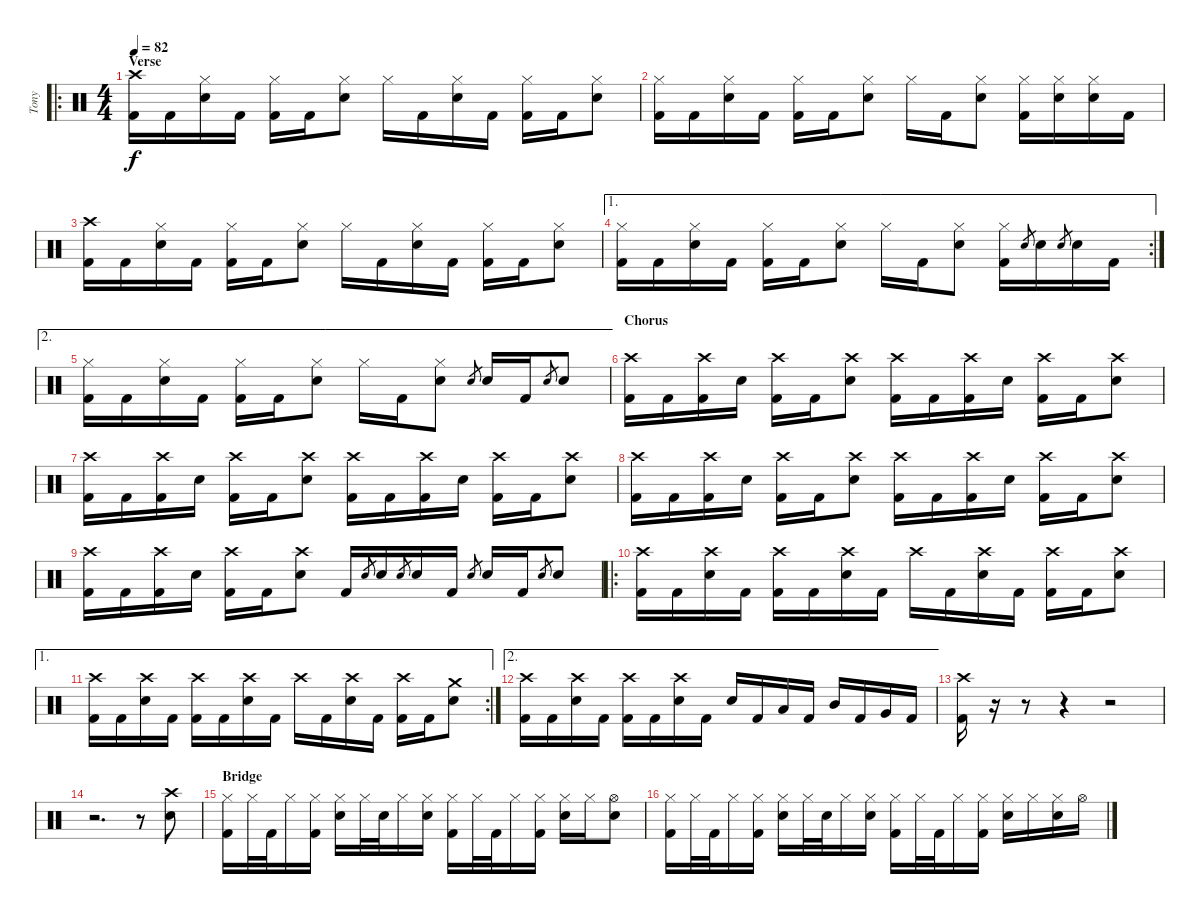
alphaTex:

\track ("Tony" "Tony") {instrument percussion}
\staff {score}
\articulation defaults
\ro
\ts (4 4)
\section ("" "Verse")
\tempo 82
\clef neutral
\ks c
("Kick (hit) 2" "Crash high (hit)").16{dy f} "Kick (hit) 2".16 ("Snare (hit) 2" "Hi-Hat (closed)").16 "Kick (hit) 2".16 ("Kick (hit) 2" "Hi-Hat (closed)").16 "Kick (hit) 2".16 ("Snare (hit) 2" "Hi-Hat (closed)").8 "Hi-Hat (closed)".16 "Kick (hit) 2".16 ("Snare (hit) 2" "Hi-Hat (closed)").16 "Kick (hit) 2".16 ("Kick (hit) 2" "Hi-Hat (closed)").16 "Kick (hit) 2".16 ("Snare (hit) 2" "Hi-Hat (closed)").8 |
("Kick (hit) 2" "Hi-Hat (closed)").16 "Kick (hit) 2".16 ("Snare (hit) 2" "Hi-Hat (closed)").16 "Kick (hit) 2".16 ("Kick (hit) 2" "Hi-Hat (closed)").16 "Kick (hit) 2".16 ("Snare (hit) 2" "Hi-Hat (closed)").8 "Hi-Hat (closed)".16 "Kick (hit) 2".16 ("Snare (hit) 2" "Hi-Hat (closed)").8 ("Kick (hit) 2" "Hi-Hat (closed)").16 ("Snare (hit) 2" "Hi-Hat (closed)").16 ("Snare (hit) 2" "Hi-Hat (closed)").16 "Kick (hit) 2".16 |
("Kick (hit) 2" "Crash high (hit)").16 "Kick (hit) 2".16 ("Snare (hit) 2" "Hi-Hat (closed)").16 "Kick (hit) 2".16 ("Kick (hit) 2" "Hi-Hat (closed)").16 "Kick (hit) 2".16 ("Snare (hit) 2" "Hi-Hat (closed)").8 "Hi-Hat (closed)".16 "Kick (hit) 2".16 ("Snare (hit) 2" "Hi-Hat (closed)").16 "Kick (hit) 2".16 ("Kick (hit) 2" "Hi-Hat (closed)").16 "Kick (hit) 2".16 ("Snare (hit) 2" "Hi-Hat (closed)").8 |
\ae 1
\rc 2
("Kick (hit) 2" "Hi-Hat (closed)").16 "Kick (hit) 2".16 ("Snare (hit) 2" "Hi-Hat (closed)").16 "Kick (hit) 2".16 ("Kick (hit) 2" "Hi-Hat (closed)").16 "Kick (hit) 2".16 ("Snare (hit) 2" "Hi-Hat (closed)").8 "Hi-Hat (closed)".16 "Kick (hit) 2".16 ("Snare (hit) 2" "Hi-Hat (closed)").8 ("Kick (hit) 2" "Hi-Hat (closed)").16 "Snare (hit) 2".8{gr} "Snare (hit) 2".16 "Snare (hit) 2".8{gr} "Snare (hit) 2".16 "Kick (hit) 2".16 |
\ae 2
("Kick (hit) 2" "Hi-Hat (closed)").16 "Kick (hit) 2".16 ("Snare (hit) 2" "Hi-Hat (closed)").16 "Kick (hit) 2".16 ("Kick (hit) 2" "Hi-Hat (closed)").16 "Kick (hit) 2".16 ("Snare (hit) 2" "Hi-Hat (closed)").8 "Hi-Hat (closed)".16 "Kick (hit) 2".16 ("Snare (hit) 2" "Hi-Hat (closed)").8 "Snare (hit) 2".8{gr} "Snare (hit) 2".16 "Kick (hit) 2".16 "Snare (hit) 2".8{gr} "Snare (hit) 2".8 |
\section ("" "Chorus")
("Kick (hit) 2" "Crash high (hit)").16 "Kick (hit) 2".16 ("Kick (hit) 2" "Crash high (hit)").16 "Snare (hit) 2".16 ("Kick (hit) 2" "Crash high (hit)").16 "Kick (hit) 2".16 ("Crash high (hit)" "Snare (hit) 2").8 ("Kick (hit) 2" "Crash high (hit)").16 "Kick (hit) 2".16 ("Kick (hit) 2" "Crash high (hit)").16 "Snare (hit) 2".16 ("Kick (hit) 2" "Crash high (hit)").16 "Kick (hit) 2".16 ("Crash high (hit)" "Snare (hit) 2").8 |
("Kick (hit) 2" "Crash high (hit)").16 "Kick (hit) 2".16 ("Kick (hit) 2" "Crash high (hit)").16 "Snare (hit) 2".16 ("Kick (hit) 2" "Crash high (hit)").16 "Kick (hit) 2".16 ("Crash high (hit)" "Snare (hit) 2").8 ("Kick (hit) 2" "Crash high (hit)").16 "Kick (hit) 2".16 ("Kick (hit) 2" "Crash high (hit)").16 "Snare (hit) 2".16 ("Kick (hit) 2" "Crash high (hit)").16 "Kick (hit) 2".16 ("Crash high (hit)" "Snare (hit) 2").8 |
("Kick (hit) 2" "Crash high (hit)").16 "Kick (hit) 2".16 ("Kick (hit) 2" "Crash high (hit)").16 "Snare (hit) 2".16 ("Kick (hit) 2" "Crash high (hit)").16 "Kick (hit) 2".16 ("Crash high (hit)" "Snare (hit) 2").8 ("Kick (hit) 2" "Crash high (hit)").16 "Kick (hit) 2".16 ("Kick (hit) 2" "Crash high (hit)").16 "Snare (hit) 2".16 ("Kick (hit) 2" "Crash high (hit)").16 "Kick (hit) 2".16 ("Crash high (hit)" "Snare (hit) 2").8 |
("Kick (hit) 2" "Crash high (hit)").16 "Kick (hit) 2".16 ("Kick (hit) 2" "Crash high (hit)").16 "Snare (hit) 2".16 ("Kick (hit) 2" "Crash high (hit)").16 "Kick (hit) 2".16 ("Crash high (hit)" "Snare (hit) 2").8 "Kick (hit) 2".16 "Snare (hit) 2".8{gr} "Snare (hit) 2".16 "Snare (hit) 2".8{gr} "Snare (hit) 2".16 "Kick (hit) 2".16 "Snare (hit) 2".8{gr} "Snare (hit) 2".16 "Kick (hit) 2".16 "Snare (hit) 2".8{gr} "Snare (hit) 2".8 |
\ro
("Kick (hit) 2" "Crash high (hit)").16 "Kick (hit) 2".16 ("Crash high (hit)" "Snare (hit) 2").16 "Kick (hit) 2".16 ("Kick (hit) 2" "Crash high (hit)").16 "Kick (hit) 2".16 ("Crash high (hit)" "Snare (hit) 2").16 "Kick (hit) 2".16 "Crash high (hit)".16 "Kick (hit) 2".16 ("Crash high (hit)" "Snare (hit) 2").16 "Kick (hit) 2".16 ("Kick (hit) 2" "Crash high (hit)").16 "Kick (hit) 2".16 ("Crash high (hit)" "Snare (hit) 2").8 |
\ae 1
\rc 2
("Kick (hit) 2" "Crash high (hit)").16 "Kick (hit) 2".16 ("Crash high (hit)" "Snare (hit) 2").16 "Kick (hit) 2".16 ("Kick (hit) 2" "Crash high (hit)").16 "Kick (hit) 2".16 ("Crash high (hit)" "Snare (hit) 2").16 "Kick (hit) 2".16 "Crash high (hit)".16 "Kick (hit) 2".16 ("Crash high (hit)" "Snare (hit) 2").16 "Kick (hit) 2".16 ("Kick (hit) 2" "Crash high (hit)").16 "Kick (hit) 2".16 ("Crash medium (hit)" "Snare (hit) 2").8 |
\ae 2
("Kick (hit) 2" "Crash high (hit)").16 "Kick (hit) 2".16 ("Crash high (hit)" "Snare (hit) 2").16 "Kick (hit) 2".16 ("Kick (hit) 2" "Crash high (hit)").16 "Kick (hit) 2".16 ("Crash high (hit)" "Snare (hit) 2").16 "Kick (hit) 2".16 "Snare (hit) 2".16 "Kick (hit) 2".16 "Low Tom (hit)".16 "Kick (hit) 2".16 "Mid Tom (hit)".16 "Kick (hit) 2".16 "Very Low Tom (hit)".16 "Kick (hit) 2".16 |
\section ("" "")
("Kick (hit) 2" "Crash high (hit)").16 r.16 r.8 r.4 r.2 |
r.2{d} r.8 ("Crash high (hit)" "Snare (hit) 2").8 |
\section ("" "Bridge")
("Kick (hit) 2" "Hi-Hat (closed)").16 "Hi-Hat (closed)".32 "Kick (hit) 2".32 "Hi-Hat (closed)".16 ("Kick (hit) 2" "Hi-Hat (closed)").16 ("Snare (hit) 2" "Hi-Hat (closed)").16 "Hi-Hat (closed)".32 "Snare (hit) 2".32 "Hi-Hat (closed)".16 ("Snare (hit) 2" "Hi-Hat (closed)").16 ("Kick (hit) 2" "Hi-Hat (closed)").16 "Hi-Hat (closed)".32 "Kick (hit) 2".32 "Hi-Hat (closed)".16 ("Kick (hit) 2" "Hi-Hat (closed)").16 ("Snare (hit) 2" "Hi-Hat (closed)").16 "Hi-Hat (closed)".16 ("Snare (hit) 2" "Hi-Hat (open)").8 |
("Kick (hit) 2" "Hi-Hat (closed)").16 "Hi-Hat (closed)".32 "Kick (hit) 2".32 "Hi-Hat (closed)".16 ("Kick (hit) 2" "Hi-Hat (closed)").16 ("Snare (hit) 2" "Hi-Hat (closed)").16 "Hi-Hat (closed)".32 "Snare (hit) 2".32 "Hi-Hat (closed)".16 ("Snare (hit) 2" "Hi-Hat (closed)").16 ("Kick (hit) 2" "Hi-Hat (closed)").16 "Hi-Hat (closed)".32 "Kick (hit) 2".32 "Hi-Hat (closed)".16 ("Kick (hit) 2" "Hi-Hat (closed)").16 ("Snare (hit) 2" "Hi-Hat (closed)").16 "Hi-Hat (closed)".16 ("Snare (hit) 2" "Hi-Hat (closed)").16 "Hi-Hat (open)".16
